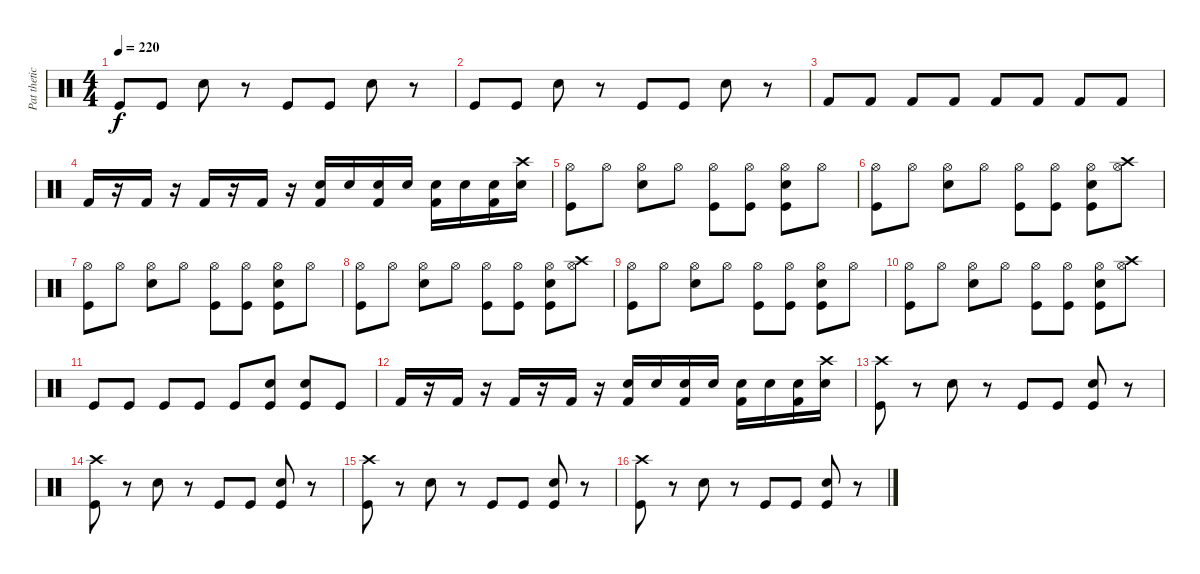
\track ("Pat thetic (Drums)" "Pat thetic") {instrument percussion}
\staff {score}
\articulation defaults
\ts (4 4)
\tempo 220
\clef neutral
\ks c "Kick (hit)".8{dy f} "Kick (hit)".8 "Electric Snare (hit)".8
r.8 "Kick (hit)".8 "Kick (hit)".8 "Electric Snare (hit)".8 r.8 |
"Kick (hit)".8 "Kick (hit)".8 "Electric Snare (hit)".8 r.8 "Kick (hit)".8 "Kick (hit)".8 "Electric Snare (hit)".8 r.8 |
"Kick (hit) 2".8 "Kick (hit) 2".8 "Kick (hit) 2".8 "Kick (hit) 2".8 "Kick (hit) 2".8 "Kick (hit) 2".8 "Kick (hit) 2".8 "Kick (hit) 2".8 |
"Kick (hit) 2".16 r.16 "Kick (hit) 2".16 r.16 "Kick (hit) 2".16 r.16 "Kick (hit) 2".16 r.16 ("Kick (hit) 2" "Electric Snare (hit)").16 "Electric Snare (hit)".16 ("Kick (hit) 2" "Electric Snare (hit)").16 "Electric Snare (hit)".16 ("Kick (hit) 2" "Electric Snare (hit)").16 "Electric Snare (hit)".16 ("Kick (hit) 2" "Electric Snare (hit)").16 ("Electric Snare (hit)" "Crash high (hit)").16 |
("Kick (hit)" "Hi-Hat (open)").8 "Hi-Hat (open)".8 ("Electric Snare (hit)" "Hi-Hat (open)").8 "Hi-Hat (open)".8 ("Kick (hit)" "Hi-Hat (open)").8 ("Kick (hit)" "Hi-Hat (open)").8 ("Kick (hit)" "Electric Snare (hit)" "Hi-Hat (open)").8 "Hi-Hat (open)".8 |
("Kick (hit)" "Hi-Hat (open)").8 "Hi-Hat (open)".8 ("Electric Snare (hit)" "Hi-Hat (open)").8 "Hi-Hat (open)".8 ("Kick (hit)" "Hi-Hat (open)").8 ("Kick (hit)" "Hi-Hat (open)").8 ("Kick (hit)" "Electric Snare (hit)" "Hi-Hat (open)").8 ("Crash high (hit)" "Hi-Hat (open)").8 |
("Kick (hit)" "Hi-Hat (open)").8 "Hi-Hat (open)".8 ("Electric Snare (hit)" "Hi-Hat (open)").8 "Hi-Hat (open)".8 ("Kick (hit)" "Hi-Hat (open)").8 ("Kick (hit)" "Hi-Hat (open)").8 ("Kick (hit)" "Electric Snare (hit)" "Hi-Hat (open)").8 "Hi-Hat (open)".8 |
("Kick (hit)" "Hi-Hat (open)").8 "Hi-Hat (open)".8 ("Electric Snare (hit)" "Hi-Hat (open)").8 "Hi-Hat (open)".8 ("Kick (hit)" "Hi-Hat (open)").8 ("Kick (hit)" "Hi-Hat (open)").8 ("Kick (hit)" "Electric Snare (hit)" "Hi-Hat (open)").8 ("Crash high (hit)" "Hi-Hat (open)").8 |
("Kick (hit)" "Hi-Hat (open)").8 "Hi-Hat (open)".8 ("Electric Snare (hit)" "Hi-Hat (open)").8 "Hi-Hat (open)".8 ("Kick (hit)" "Hi-Hat (open)").8 ("Kick (hit)" "Hi-Hat (open)").8 ("Kick (hit)" "Electric Snare (hit)" "Hi-Hat (open)").8 "Hi-Hat (open)".8 |
("Kick (hit)" "Hi-Hat (open)").8 "Hi-Hat (open)".8 ("Electric Snare (hit)" "Hi-Hat (open)").8 "Hi-Hat (open)".8 ("Kick (hit)" "Hi-Hat (open)").8 ("Kick (hit)" "Hi-Hat (open)").8 ("Kick (hit)" "Electric Snare (hit)" "Hi-Hat (open)").8 ("Crash high (hit)" "Hi-Hat (open)").8 |
"Kick (hit)".8 "Kick (hit)".8 "Kick (hit)".8 "Kick (hit)".8 "Kick (hit)".8 ("Kick (hit)" "Electric Snare (hit)").8 ("Kick (hit)" "Electric Snare (hit)").8 "Kick (hit)".8 |
"Kick (hit) 2".16 r.16 "Kick (hit) 2".16 r.16 "Kick (hit) 2".16 r.16 "Kick (hit) 2".16 r.16 ("Kick (hit) 2" "Electric Snare (hit)").16 "Electric Snare (hit)".16 ("Kick (hit) 2" "Electric Snare (hit)").16 "Electric Snare (hit)".16 ("Kick (hit) 2" "Electric Snare (hit)").16 "Electric Snare (hit)".16 ("Kick (hit) 2" "Electric Snare (hit)").16 ("Electric Snare (hit)" "Crash high (hit)").16 |
("Kick (hit)" "Crash high (hit)").8 r.8 "Electric Snare (hit)".8 r.8 "Kick (hit)".8 "Kick (hit)".8 ("Kick (hit)" "Electric Snare (hit)").8 r.8 |
("Kick (hit)" "Crash high (hit)").8 r.8 "Electric Snare (hit)".8 r.8 "Kick (hit)".8 "Kick (hit)".8 ("Kick (hit)" "Electric Snare (hit)").8 r.8 |
("Kick (hit)" "Crash high (hit)").8 r.8 "Electric Snare (hit)".8 r.8 "Kick (hit)".8 "Kick (hit)".8 ("Kick (hit)" "Electric Snare (hit)").8 r.8 |
("Kick (hit)" "Crash high (hit)").8 r.8 "Electric Snare (hit)".8 r.8 "Kick (hit)".8 "Kick (hit)".8 ("Kick (hit)" "Electric Snare (hit)").8 r.8
